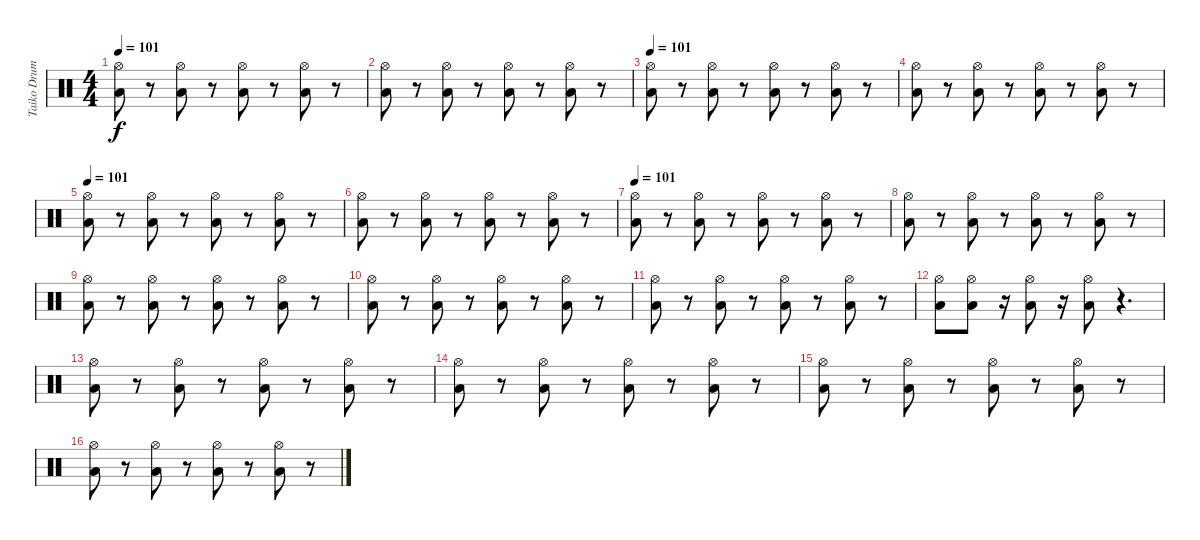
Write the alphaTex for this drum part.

\track ("Taiko Drum" "Taiko Drum") {instrument percussion}
\staff {score}
\articulation defaults
\ts (4 4)
\tempo 101
\clef neutral
\ks c
("Hi-Hat (open)" "Low Floor Tom (hit)").8{dy f} r.8 ("Low Floor Tom (hit)" "Hi-Hat (open)").8 r.8 ("Low Floor Tom (hit)" "Hi-Hat (open)").8 r.8 ("Low Floor Tom (hit)" "Hi-Hat (open)").8 r.8 |
("Hi-Hat (open)" "Low Floor Tom (hit)").8 r.8 ("Hi-Hat (open)" "Low Floor Tom (hit)").8 r.8 ("Hi-Hat (open)" "Low Floor Tom (hit)").8 r.8 ("Hi-Hat (open)" "Low Floor Tom (hit)").8 r.8 |
\tempo 101
("Hi-Hat (open)" "Low Floor Tom (hit)").8 r.8 ("Low Floor Tom (hit)" "Hi-Hat (open)").8 r.8 ("Low Floor Tom (hit)" "Hi-Hat (open)").8 r.8 ("Low Floor Tom (hit)" "Hi-Hat (open)").8 r.8 |
("Hi-Hat (open)" "Low Floor Tom (hit)").8 r.8 ("Hi-Hat (open)" "Low Floor Tom (hit)").8 r.8 ("Hi-Hat (open)" "Low Floor Tom (hit)").8 r.8 ("Hi-Hat (open)" "Low Floor Tom (hit)").8 r.8 |
\tempo 101
("Hi-Hat (open)" "Low Floor Tom (hit)").8 r.8 ("Low Floor Tom (hit)" "Hi-Hat (open)").8 r.8 ("Low Floor Tom (hit)" "Hi-Hat (open)").8 r.8 ("Low Floor Tom (hit)" "Hi-Hat (open)").8 r.8 |
("Hi-Hat (open)" "Low Floor Tom (hit)").8 r.8 ("Hi-Hat (open)" "Low Floor Tom (hit)").8 r.8 ("Hi-Hat (open)" "Low Floor Tom (hit)").8 r.8 ("Hi-Hat (open)" "Low Floor Tom (hit)").8 r.8 |
\tempo 101
("Hi-Hat (open)" "Low Floor Tom (hit)").8 r.8 ("Low Floor Tom (hit)" "Hi-Hat (open)").8 r.8 ("Low Floor Tom (hit)" "Hi-Hat (open)").8 r.8 ("Low Floor Tom (hit)" "Hi-Hat (open)").8 r.8 |
("Hi-Hat (open)" "Low Floor Tom (hit)").8 r.8 ("Hi-Hat (open)" "Low Floor Tom (hit)").8 r.8 ("Hi-Hat (open)" "Low Floor Tom (hit)").8 r.8 ("Hi-Hat (open)" "Low Floor Tom (hit)").8 r.8 |
("Hi-Hat (open)" "Low Floor Tom (hit)").8 r.8 ("Low Floor Tom (hit)" "Hi-Hat (open)").8 r.8 ("Low Floor Tom (hit)" "Hi-Hat (open)").8 r.8 ("Low Floor Tom (hit)" "Hi-Hat (open)").8 r.8 |
("Hi-Hat (open)" "Low Floor Tom (hit)").8 r.8 ("Hi-Hat (open)" "Low Floor Tom (hit)").8 r.8 ("Hi-Hat (open)" "Low Floor Tom (hit)").8 r.8 ("Hi-Hat (open)" "Low Floor Tom (hit)").8 r.8 |
("Hi-Hat (open)" "Low Floor Tom (hit)").8 r.8 ("Low Floor Tom (hit)" "Hi-Hat (open)").8 r.8 ("Low Floor Tom (hit)" "Hi-Hat (open)").8 r.8 ("Low Floor Tom (hit)" "Hi-Hat (open)").8 r.8 |
("Hi-Hat (open)" "Low Floor Tom (hit)").8 ("Hi-Hat (open)" "Low Floor Tom (hit)").8 r.16 ("Hi-Hat (open)" "Low Floor Tom (hit)").8 r.16 ("Hi-Hat (open)" "Low Floor Tom (hit)").8 r.4{d} |
("Hi-Hat (open)" "Low Floor Tom (hit)").8 r.8 ("Low Floor Tom (hit)" "Hi-Hat (open)").8 r.8 ("Low Floor Tom (hit)" "Hi-Hat (open)").8 r.8 ("Low Floor Tom (hit)" "Hi-Hat (open)").8 r.8 |
("Hi-Hat (open)" "Low Floor Tom (hit)").8 r.8 ("Hi-Hat (open)" "Low Floor Tom (hit)").8 r.8 ("Hi-Hat (open)" "Low Floor Tom (hit)").8 r.8 ("Hi-Hat (open)" "Low Floor Tom (hit)").8 r.8 |
("Hi-Hat (open)" "Low Floor Tom (hit)").8 r.8 ("Low Floor Tom (hit)" "Hi-Hat (open)").8 r.8 ("Low Floor Tom (hit)" "Hi-Hat (open)").8 r.8 ("Low Floor Tom (hit)" "Hi-Hat (open)").8 r.8 |
("Hi-Hat (open)" "Low Floor Tom (hit)").8 r.8 ("Hi-Hat (open)" "Low Floor Tom (hit)").8 r.8 ("Hi-Hat (open)" "Low Floor Tom (hit)").8 r.8 ("Hi-Hat (open)" "Low Floor Tom (hit)").8 r.8
